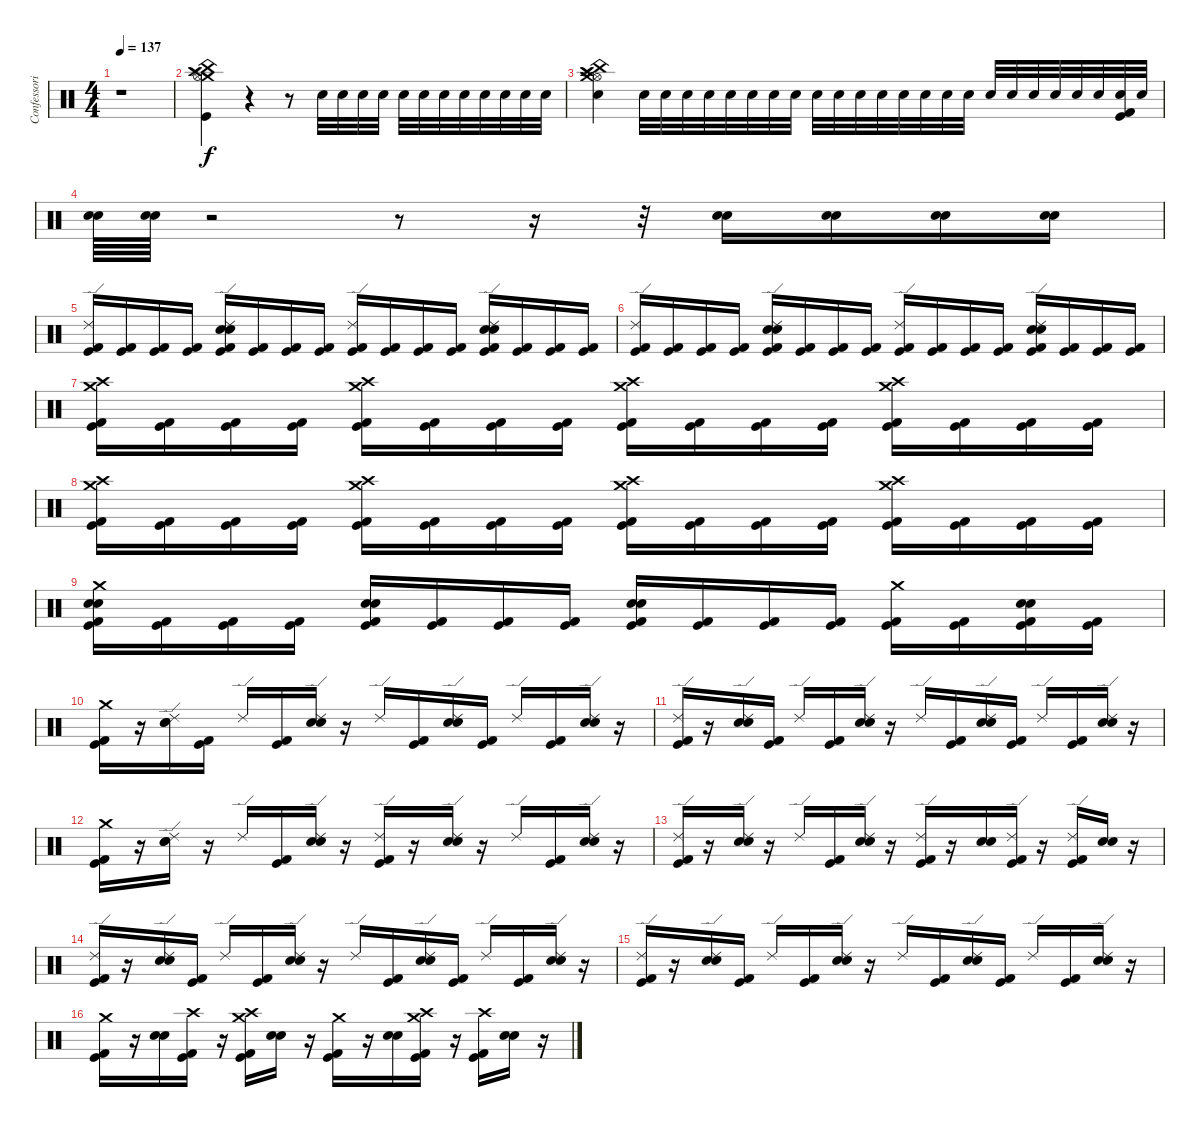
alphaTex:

\track ("Confessori" "Confessori") {instrument percussion}
\staff {score}
\articulation defaults
\ts (4 4)
\tempo 137
\clef neutral
\ks c
r.1{dy f} |
("China (hit)" "Splash (hit)" "Crash medium (hit)" "Crash high (hit)" "Hi-Hat (open)" "Kick (hit)").4 r.4 r.8 "Electric Snare (hit)".32 "Electric Snare (hit)".32 "Electric Snare (hit)".32 "Electric Snare (hit)".32 "Electric Snare (hit)".32 "Electric Snare (hit)".32 "Electric Snare (hit)".32 "Electric Snare (hit)".32 "Electric Snare (hit)".32 "Electric Snare (hit)".32 "Electric Snare (hit)".32 "Electric Snare (hit)".32 |
("Hi-Hat (open)" "Crash high (hit)" "China (hit)" "Splash (hit)" "Crash medium (hit)" "Snare (hit) 2").4 "Electric Snare (hit)".32 "Electric Snare (hit)".32 "Electric Snare (hit)".32 "Electric Snare (hit)".32 "Electric Snare (hit)".32 "Electric Snare (hit)".32 "Electric Snare (hit)".32 "Electric Snare (hit)".32 "Electric Snare (hit)".32 "Electric Snare (hit)".32 "Electric Snare (hit)".32 "Electric Snare (hit)".32 "Electric Snare (hit)".32 "Electric Snare (hit)".32 "Electric Snare (hit)".32 "Electric Snare (hit)".32 "Electric Snare (hit)".32 "Electric Snare (hit)".32 "Electric Snare (hit)".32 "Electric Snare (hit)".32 "Electric Snare (hit)".32 "Electric Snare (hit)".32 ("Kick (hit) 2" "Kick (hit)" "Electric Snare (hit)").32 "Electric Snare (hit)".32 |
("Electric Snare (hit)" "Snare (hit) 2").64 ("Electric Snare (hit)" "Snare (hit) 2").64 r.2 r.8 r.16 r.32 ("Electric Snare (hit)" "Snare (hit) 2").16 ("Electric Snare (hit)" "Snare (hit) 2").16 ("Electric Snare (hit)" "Snare (hit) 2").16 ("Snare (hit) 2" "Electric Snare (hit)").16 |
("Ride (edge) 2" "Kick (hit) 2" "Kick (hit)").16 ("Kick (hit) 2" "Kick (hit)").16 ("Kick (hit) 2" "Kick (hit)").16 ("Kick (hit) 2" "Kick (hit)").16 ("Snare (hit) 2" "Electric Snare (hit)" "Ride (edge) 2" "Kick (hit) 2" "Kick (hit)").16 ("Kick (hit) 2" "Kick (hit)").16 ("Kick (hit) 2" "Kick (hit)").16 ("Kick (hit) 2" "Kick (hit)").16 ("Ride (edge) 2" "Kick (hit) 2" "Kick (hit)").16 ("Kick (hit) 2" "Kick (hit)").16 ("Kick (hit) 2" "Kick (hit)").16 ("Kick (hit) 2" "Kick (hit)").16 ("Snare (hit) 2" "Electric Snare (hit)" "Ride (edge) 2" "Kick (hit) 2" "Kick (hit)").16 ("Kick (hit) 2" "Kick (hit)").16 ("Kick (hit) 2" "Kick (hit)").16 ("Kick (hit) 2" "Kick (hit)").16 |
("Ride (edge) 2" "Kick (hit) 2" "Kick (hit)").16 ("Kick (hit) 2" "Kick (hit)").16 ("Kick (hit) 2" "Kick (hit)").16 ("Kick (hit) 2" "Kick (hit)").16 ("Snare (hit) 2" "Electric Snare (hit)" "Ride (edge) 2" "Kick (hit) 2" "Kick (hit)").16 ("Kick (hit) 2" "Kick (hit)").16 ("Kick (hit) 2" "Kick (hit)").16 ("Kick (hit) 2" "Kick (hit)").16 ("Ride (edge) 2" "Kick (hit) 2" "Kick (hit)").16 ("Kick (hit) 2" "Kick (hit)").16 ("Kick (hit) 2" "Kick (hit)").16 ("Kick (hit) 2" "Kick (hit)").16 ("Snare (hit) 2" "Electric Snare (hit)" "Ride (edge) 2" "Kick (hit) 2" "Kick (hit)").16 ("Kick (hit) 2" "Kick (hit)").16 ("Kick (hit) 2" "Kick (hit)").16 ("Kick (hit) 2" "Kick (hit)").16 |
("Crash medium (hit)" "Crash high (hit)" "Kick (hit) 2" "Kick (hit)").16 ("Kick (hit) 2" "Kick (hit)").16 ("Kick (hit) 2" "Kick (hit)").16 ("Kick (hit) 2" "Kick (hit)").16 ("Crash high (hit)" "Crash medium (hit)" "Kick (hit) 2" "Kick (hit)").16 ("Kick (hit) 2" "Kick (hit)").16 ("Kick (hit) 2" "Kick (hit)").16 ("Kick (hit) 2" "Kick (hit)").16 ("Crash high (hit)" "Crash medium (hit)" "Kick (hit) 2" "Kick (hit)").16 ("Kick (hit) 2" "Kick (hit)").16 ("Kick (hit) 2" "Kick (hit)").16 ("Kick (hit) 2" "Kick (hit)").16 ("Crash high (hit)" "Crash medium (hit)" "Kick (hit) 2" "Kick (hit)").16 ("Kick (hit) 2" "Kick (hit)").16 ("Kick (hit) 2" "Kick (hit)").16 ("Kick (hit) 2" "Kick (hit)").16 |
("Crash medium (hit)" "Crash high (hit)" "Kick (hit) 2" "Kick (hit)").16 ("Kick (hit) 2" "Kick (hit)").16 ("Kick (hit) 2" "Kick (hit)").16 ("Kick (hit) 2" "Kick (hit)").16 ("Crash medium (hit)" "Crash high (hit)" "Kick (hit) 2" "Kick (hit)").16 ("Kick (hit) 2" "Kick (hit)").16 ("Kick (hit) 2" "Kick (hit)").16 ("Kick (hit) 2" "Kick (hit)").16 ("Crash medium (hit)" "Crash high (hit)" "Kick (hit) 2" "Kick (hit)").16 ("Kick (hit) 2" "Kick (hit)").16 ("Kick (hit) 2" "Kick (hit)").16 ("Kick (hit) 2" "Kick (hit)").16 ("Crash medium (hit)" "Crash high (hit)" "Kick (hit) 2" "Kick (hit)").16 ("Kick (hit) 2" "Kick (hit)").16 ("Kick (hit) 2" "Kick (hit)").16 ("Kick (hit) 2" "Kick (hit)").16 |
("Snare (hit) 2" "Electric Snare (hit)" "Crash medium (hit)" "Kick (hit) 2" "Kick (hit)").16 ("Kick (hit) 2" "Kick (hit)").16 ("Kick (hit) 2" "Kick (hit)").16 ("Kick (hit) 2" "Kick (hit)").16 ("Snare (hit) 2" "Electric Snare (hit)" "Kick (hit) 2" "Kick (hit)").16 ("Kick (hit) 2" "Kick (hit)").16 ("Kick (hit) 2" "Kick (hit)").16 ("Kick (hit) 2" "Kick (hit)").16 ("Snare (hit) 2" "Electric Snare (hit)" "Kick (hit) 2" "Kick (hit)").16 ("Kick (hit) 2" "Kick (hit)").16 ("Kick (hit) 2" "Kick (hit)").16 ("Kick (hit) 2" "Kick (hit)").16 ("Crash medium (hit)" "Kick (hit) 2" "Kick (hit)").16 ("Kick (hit) 2" "Kick (hit)").16 ("Electric Snare (hit)" "Snare (hit) 2" "Kick (hit) 2" "Kick (hit)").16 ("Kick (hit) 2" "Kick (hit)").16 |
("Crash medium (hit)" "Kick (hit) 2" "Kick (hit)").16 r.16 ("Ride (edge) 2" "Electric Snare (hit)" "Snare (hit) 2").16 ("Kick (hit) 2" "Kick (hit)").16 "Ride (edge) 2".16 ("Kick (hit) 2" "Kick (hit)").16 ("Ride (edge) 2" "Electric Snare (hit)" "Snare (hit) 2").16 r.16 "Ride (edge) 2".16 ("Kick (hit) 2" "Kick (hit)").16 ("Snare (hit) 2" "Electric Snare (hit)" "Ride (edge) 2").16 ("Kick (hit) 2" "Kick (hit)").16 "Ride (edge) 2".16 ("Kick (hit) 2" "Kick (hit)").16 ("Ride (edge) 2" "Electric Snare (hit)" "Snare (hit) 2").16 r.16 |
("Ride (edge) 2" "Kick (hit) 2" "Kick (hit)").16 r.16 ("Electric Snare (hit)" "Snare (hit) 2" "Ride (edge) 2").16 ("Kick (hit) 2" "Kick (hit)").16 "Ride (edge) 2".16 ("Kick (hit) 2" "Kick (hit)").16 ("Electric Snare (hit)" "Snare (hit) 2" "Ride (edge) 2").16 r.16 "Ride (edge) 2".16 ("Kick (hit) 2" "Kick (hit)").16 ("Snare (hit) 2" "Electric Snare (hit)" "Ride (edge) 2").16 ("Kick (hit)" "Kick (hit) 2").16 "Ride (edge) 2".16 ("Kick (hit) 2" "Kick (hit)").16 ("Electric Snare (hit)" "Snare (hit) 2" "Ride (edge) 2").16 r.16 |
("Crash medium (hit)" "Kick (hit) 2" "Kick (hit)").16 r.16 ("Electric Snare (hit)" "Snare (hit) 2" "Ride (edge) 2").16 r.16 "Ride (edge) 2".16 ("Kick (hit) 2" "Kick (hit)").16 ("Electric Snare (hit)" "Snare (hit) 2" "Ride (edge) 2").16 r.16 ("Ride (edge) 2" "Kick (hit) 2" "Kick (hit)").16 r.16 ("Electric Snare (hit)" "Snare (hit) 2" "Ride (edge) 2").16 r.16 "Ride (edge) 2".16 ("Kick (hit) 2" "Kick (hit)").16 ("Electric Snare (hit)" "Snare (hit) 2" "Ride (edge) 2").16 r.16 |
("Kick (hit) 2" "Ride (edge) 2" "Kick (hit)").16 r.16 ("Electric Snare (hit)" "Snare (hit) 2" "Ride (edge) 2").16 r.16 "Ride (edge) 2".16 ("Kick (hit) 2" "Kick (hit)").16 ("Electric Snare (hit)" "Snare (hit) 2" "Ride (edge) 2").16 r.16 ("Ride (edge) 2" "Kick (hit) 2" "Kick (hit)").16 r.16 ("Electric Snare (hit)" "Snare (hit) 2").16 ("Ride (edge) 2" "Kick (hit) 2" "Kick (hit)").16 r.16 ("Ride (edge) 2" "Kick (hit) 2" "Kick (hit)").16 ("Electric Snare (hit)" "Snare (hit) 2").16 r.16 |
("Ride (edge) 2" "Kick (hit) 2" "Kick (hit)").16 r.16 ("Electric Snare (hit)" "Snare (hit) 2" "Ride (edge) 2").16 ("Kick (hit) 2" "Kick (hit)").16 "Ride (edge) 2".16 ("Kick (hit) 2" "Kick (hit)").16 ("Electric Snare (hit)" "Snare (hit) 2" "Ride (edge) 2").16 r.16 "Ride (edge) 2".16 ("Kick (hit) 2" "Kick (hit)").16 ("Electric Snare (hit)" "Snare (hit) 2" "Ride (edge) 2").16 ("Kick (hit) 2" "Kick (hit)").16 "Ride (edge) 2".16 ("Kick (hit) 2" "Kick (hit)").16 ("Electric Snare (hit)" "Snare (hit) 2" "Ride (edge) 2").16 r.16 |
("Ride (edge) 2" "Kick (hit) 2" "Kick (hit)").16 r.16 ("Electric Snare (hit)" "Snare (hit) 2" "Ride (edge) 2").16 ("Kick (hit) 2" "Kick (hit)").16 "Ride (edge) 2".16 ("Kick (hit) 2" "Kick (hit)").16 ("Electric Snare (hit)" "Snare (hit) 2" "Ride (edge) 2").16 r.16 "Ride (edge) 2".16 ("Kick (hit) 2" "Kick (hit)").16 ("Electric Snare (hit)" "Snare (hit) 2" "Ride (edge) 2").16 ("Kick (hit) 2" "Kick (hit)").16 "Ride (edge) 2".16 ("Kick (hit) 2" "Kick (hit)").16 ("Electric Snare (hit)" "Snare (hit) 2" "Ride (edge) 2").16 r.16 |
("Crash medium (hit)" "Kick (hit) 2" "Kick (hit)").16 r.16 ("Electric Snare (hit)" "Snare (hit) 2").16 ("Crash high (hit)" "Kick (hit)" "Kick (hit) 2").16 r.16 ("Crash high (hit)" "Crash medium (hit)" "Kick (hit) 2" "Kick (hit)").16 ("Electric Snare (hit)" "Snare (hit) 2").16 r.16 ("Crash medium (hit)" "Kick (hit) 2" "Kick (hit)").16 r.16 ("Electric Snare (hit)" "Snare (hit) 2").16 ("Crash medium (hit)" "Crash high (hit)" "Kick (hit) 2" "Kick (hit)").16 r.16 ("Crash high (hit)" "Kick (hit) 2" "Kick (hit)").16 ("Electric Snare (hit)" "Snare (hit) 2").16 r.16
